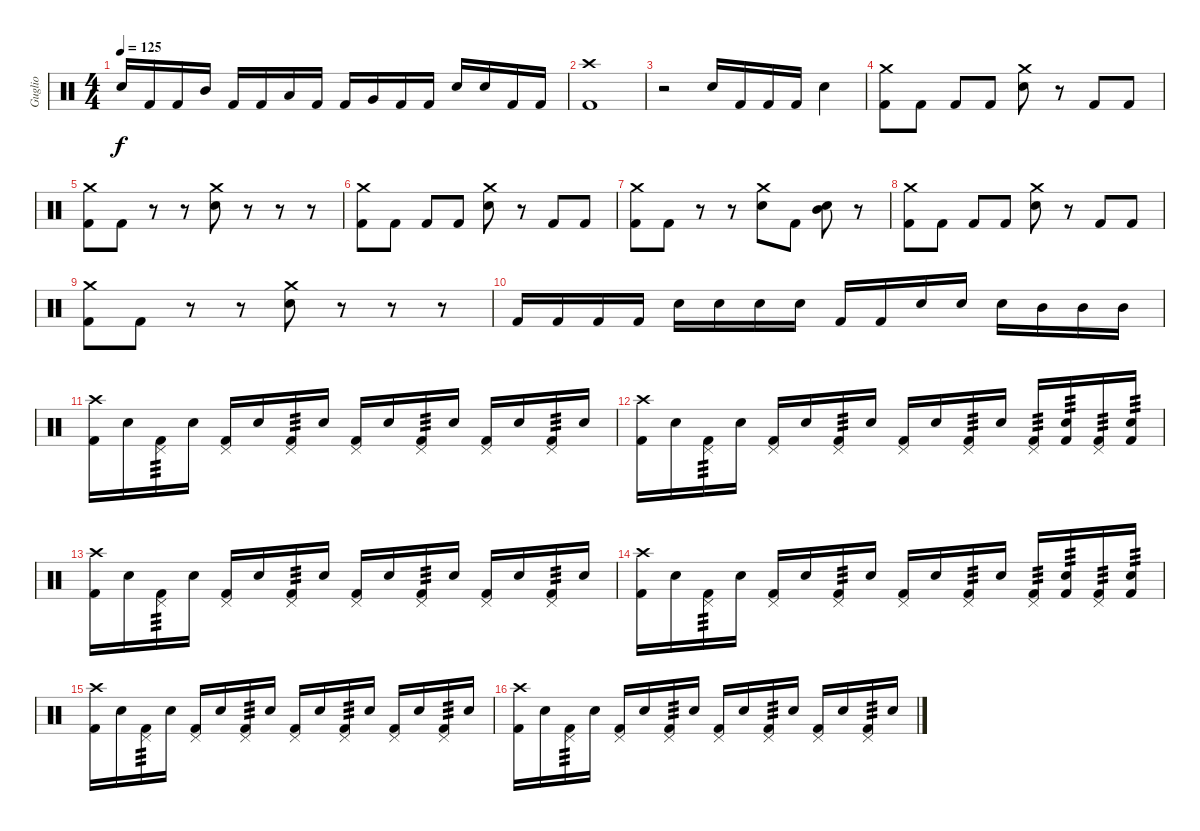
\track ("Guglio" "Guglio") {instrument percussion}
\staff {score}
\articulation defaults
\ts (4 4)
\tempo 125
\clef neutral
\ks c "Electric Snare (hit)".16{dy f} "Kick (hit) 2".16 "Kick (hit) 2".16 "Mid Tom (hit)".16 "Kick (hit) 2".16 "Kick (hit) 2".16 "Low Tom (hit)".16 "Kick (hit) 2".16 "Kick (hit) 2".16 "Very Low Tom (hit)".16 "Kick (hit) 2".16 "Kick (hit) 2".16 "Electric Snare (hit)".16 "Electric Snare (hit)".16 "Kick (hit) 2".16 "Kick (hit) 2".16
|
("Crash high (hit)" "Kick (hit) 2").1 |
r.2 "Electric Snare (hit)".16 "Kick (hit) 2".16 "Kick (hit) 2".16 "Kick (hit) 2".16 "Electric Snare (hit)".4 |
("Crash medium (hit)" "Kick (hit) 2").8 "Kick (hit) 2".8 "Kick (hit) 2".8 "Kick (hit) 2".8 ("Crash medium (hit)" "Electric Snare (hit)").8 r.8 "Kick (hit) 2".8 "Kick (hit) 2".8 |
("Crash medium (hit)" "Kick (hit) 2").8 "Kick (hit) 2".8 r.8 r.8 ("Crash medium (hit)" "Electric Snare (hit)").8 r.8 r.8 r.8 |
("Crash medium (hit)" "Kick (hit) 2").8 "Kick (hit) 2".8 "Kick (hit) 2".8 "Kick (hit) 2".8 ("Crash medium (hit)" "Electric Snare (hit)").8 r.8 "Kick (hit) 2".8 "Kick (hit) 2".8 |
("Crash medium (hit)" "Kick (hit) 2").8 "Kick (hit) 2".8 r.8 r.8 ("Crash medium (hit)" "Electric Snare (hit)").8 "Kick (hit) 2".8 ("Mid Tom (hit)" "Electric Snare (hit)").8{bd 480} r.8 |
("Crash medium (hit)" "Kick (hit) 2").8 "Kick (hit) 2".8 "Kick (hit) 2".8 "Kick (hit) 2".8 ("Crash medium (hit)" "Electric Snare (hit)").8 r.8 "Kick (hit) 2".8 "Kick (hit) 2".8 |
("Crash medium (hit)" "Kick (hit) 2").8 "Kick (hit) 2".8 r.8 r.8 ("Crash medium (hit)" "Electric Snare (hit)").8 r.8 r.8 r.8 |
"Kick (hit) 2".16 "Kick (hit) 2".16 "Kick (hit) 2".16 "Kick (hit) 2".16 "Electric Snare (hit)".16 "Electric Snare (hit)".16 "Electric Snare (hit)".16 "Electric Snare (hit)".16 "Kick (hit) 2".16 "Kick (hit) 2".16 "Electric Snare (hit)".16 "Electric Snare (hit)".16 "Electric Snare (hit)".16 "Mid Tom (hit)".16 "Mid Tom (hit)".16 "Mid Tom (hit)".16 |
("Crash high (hit)" "Kick (hit) 2").16 "Electric Snare (hit)".16 ("Pedal Hi-Hat (hit)" "Kick (hit) 2").16{tp 3} "Electric Snare (hit)".16 ("Pedal Hi-Hat (hit)" "Kick (hit) 2").16 "Electric Snare (hit)".16 ("Pedal Hi-Hat (hit)" "Kick (hit) 2").16{tp 3} "Electric Snare (hit)".16 ("Pedal Hi-Hat (hit)" "Kick (hit) 2").16 "Electric Snare (hit)".16 ("Pedal Hi-Hat (hit)" "Kick (hit) 2").16{tp 3} "Electric Snare (hit)".16 ("Pedal Hi-Hat (hit)" "Kick (hit) 2").16 "Electric Snare (hit)".16 ("Pedal Hi-Hat (hit)" "Kick (hit) 2").16{tp 3} "Electric Snare (hit)".16 |
("Crash high (hit)" "Kick (hit) 2").16 "Electric Snare (hit)".16 ("Pedal Hi-Hat (hit)" "Kick (hit) 2").16{tp 3} "Electric Snare (hit)".16 ("Pedal Hi-Hat (hit)" "Kick (hit) 2").16 "Electric Snare (hit)".16 ("Pedal Hi-Hat (hit)" "Kick (hit) 2").16{tp 3} "Electric Snare (hit)".16 ("Pedal Hi-Hat (hit)" "Kick (hit) 2").16 "Electric Snare (hit)".16 ("Pedal Hi-Hat (hit)" "Kick (hit) 2").16{tp 3} "Electric Snare (hit)".16 ("Pedal Hi-Hat (hit)" "Kick (hit) 2").16{tp 3} ("Electric Snare (hit)" "Kick (hit) 2").16{tp 3} ("Pedal Hi-Hat (hit)" "Kick (hit) 2").16{tp 3} ("Electric Snare (hit)" "Kick (hit) 2").16{tp 3} |
("Crash high (hit)" "Kick (hit) 2").16 "Electric Snare (hit)".16 ("Pedal Hi-Hat (hit)" "Kick (hit) 2").16{tp 3} "Electric Snare (hit)".16 ("Pedal Hi-Hat (hit)" "Kick (hit) 2").16 "Electric Snare (hit)".16 ("Pedal Hi-Hat (hit)" "Kick (hit) 2").16{tp 3} "Electric Snare (hit)".16 ("Pedal Hi-Hat (hit)" "Kick (hit) 2").16 "Electric Snare (hit)".16 ("Pedal Hi-Hat (hit)" "Kick (hit) 2").16{tp 3} "Electric Snare (hit)".16 ("Pedal Hi-Hat (hit)" "Kick (hit) 2").16 "Electric Snare (hit)".16 ("Pedal Hi-Hat (hit)" "Kick (hit) 2").16{tp 3} "Electric Snare (hit)".16 |
("Crash high (hit)" "Kick (hit) 2").16 "Electric Snare (hit)".16 ("Pedal Hi-Hat (hit)" "Kick (hit) 2").16{tp 3} "Electric Snare (hit)".16 ("Pedal Hi-Hat (hit)" "Kick (hit) 2").16 "Electric Snare (hit)".16 ("Pedal Hi-Hat (hit)" "Kick (hit) 2").16{tp 3} "Electric Snare (hit)".16 ("Pedal Hi-Hat (hit)" "Kick (hit) 2").16 "Electric Snare (hit)".16 ("Pedal Hi-Hat (hit)" "Kick (hit) 2").16{tp 3} "Electric Snare (hit)".16 ("Pedal Hi-Hat (hit)" "Kick (hit) 2").16{tp 3} ("Electric Snare (hit)" "Kick (hit) 2").16{tp 3} ("Pedal Hi-Hat (hit)" "Kick (hit) 2").16{tp 3} ("Electric Snare (hit)" "Kick (hit) 2").16{tp 3} |
("Crash high (hit)" "Kick (hit) 2").16 "Electric Snare (hit)".16 ("Pedal Hi-Hat (hit)" "Kick (hit) 2").16{tp 3} "Electric Snare (hit)".16 ("Pedal Hi-Hat (hit)" "Kick (hit) 2").16 "Electric Snare (hit)".16 ("Pedal Hi-Hat (hit)" "Kick (hit) 2").16{tp 3} "Electric Snare (hit)".16 ("Pedal Hi-Hat (hit)" "Kick (hit) 2").16 "Electric Snare (hit)".16 ("Pedal Hi-Hat (hit)" "Kick (hit) 2").16{tp 3} "Electric Snare (hit)".16 ("Pedal Hi-Hat (hit)" "Kick (hit) 2").16 "Electric Snare (hit)".16 ("Pedal Hi-Hat (hit)" "Kick (hit) 2").16{tp 3} "Electric Snare (hit)".16 |
("Crash high (hit)" "Kick (hit) 2").16 "Electric Snare (hit)".16 ("Pedal Hi-Hat (hit)" "Kick (hit) 2").16{tp 3} "Electric Snare (hit)".16 ("Pedal Hi-Hat (hit)" "Kick (hit) 2").16 "Electric Snare (hit)".16 ("Pedal Hi-Hat (hit)" "Kick (hit) 2").16{tp 3} "Electric Snare (hit)".16 ("Pedal Hi-Hat (hit)" "Kick (hit) 2").16 "Electric Snare (hit)".16 ("Pedal Hi-Hat (hit)" "Kick (hit) 2").16{tp 3} "Electric Snare (hit)".16 ("Pedal Hi-Hat (hit)" "Kick (hit) 2").16 "Electric Snare (hit)".16 ("Pedal Hi-Hat (hit)" "Kick (hit) 2").16{tp 3} "Electric Snare (hit)".16
